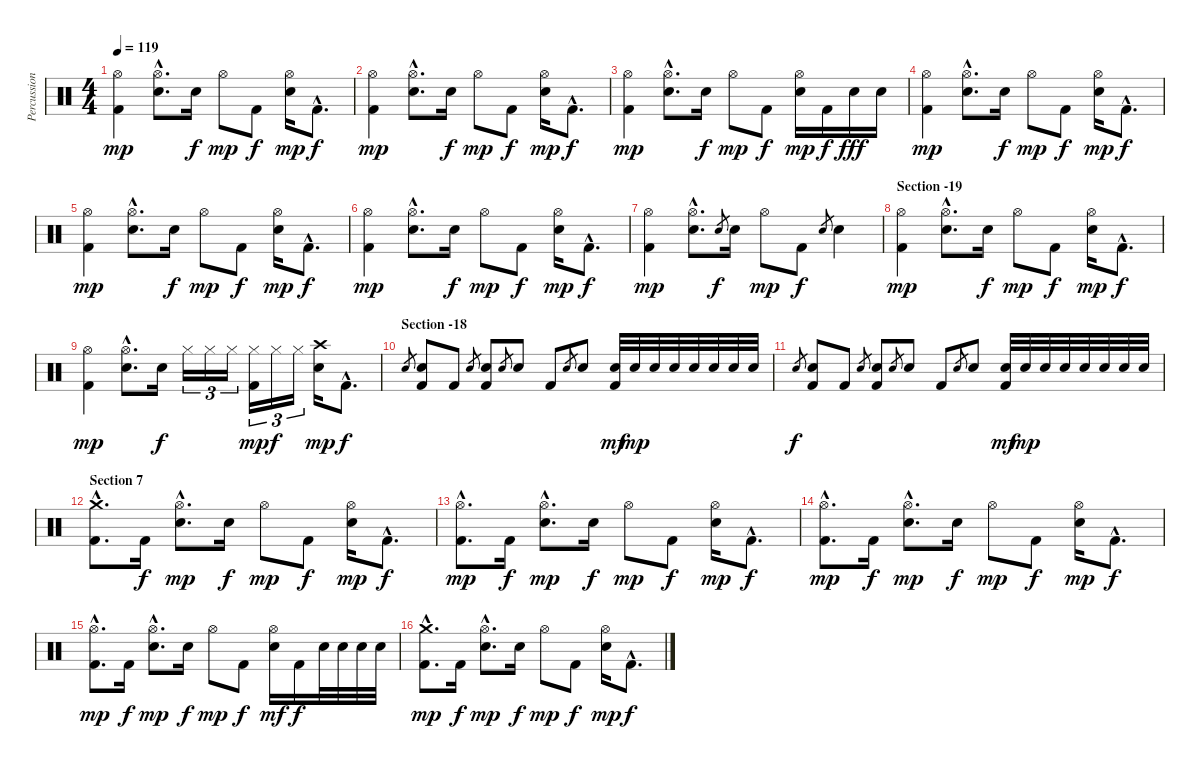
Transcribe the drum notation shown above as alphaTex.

\track ("Percussions" "Percussion") {instrument percussion}
\staff {score}
\articulation defaults
\ts (4 4)
\tempo 119
\clef neutral
\ks c
("Hi-Hat (open)" "Kick (hit) 2").4{dy mp} ("Hi-Hat (open)"{hac} "Snare (hit) 2"{hac}).8{d} "Snare (hit) 2".16{dy f} "Hi-Hat (open)".8{dy mp} "Kick (hit) 2".8{dy f} ("Hi-Hat (open)" "Snare (hit) 2").16{dy mp} "Kick (hit) 2"{hac}.8{d dy f} |
("Hi-Hat (open)" "Kick (hit) 2").4{dy mp} ("Hi-Hat (open)"{hac} "Snare (hit) 2"{hac}).8{d} "Snare (hit) 2".16{dy f} "Hi-Hat (open)".8{dy mp} "Kick (hit) 2".8{dy f} ("Hi-Hat (open)" "Snare (hit) 2").16{dy mp} "Kick (hit) 2"{hac}.8{d dy f} |
("Hi-Hat (open)" "Kick (hit) 2").4{dy mp} ("Hi-Hat (open)"{hac} "Snare (hit) 2"{hac}).8{d} "Snare (hit) 2".16{dy f} "Hi-Hat (open)".8{dy mp} "Kick (hit) 2".8{dy f} ("Hi-Hat (open)" "Snare (hit) 2").16{dy mp} "Kick (hit) 2".16{dy f} "Snare (hit) 2".16{dy fff} "Snare (hit) 2".16 |
("Hi-Hat (open)" "Kick (hit) 2").4{dy mp} ("Hi-Hat (open)"{hac} "Snare (hit) 2"{hac}).8{d} "Snare (hit) 2".16{dy f} "Hi-Hat (open)".8{dy mp} "Kick (hit) 2".8{dy f} ("Hi-Hat (open)" "Snare (hit) 2").16{dy mp} "Kick (hit) 2"{hac}.8{d dy f} |
("Hi-Hat (open)" "Kick (hit) 2").4{dy mp} ("Hi-Hat (open)"{hac} "Snare (hit) 2"{hac}).8{d} "Snare (hit) 2".16{dy f} "Hi-Hat (open)".8{dy mp} "Kick (hit) 2".8{dy f} ("Hi-Hat (open)" "Snare (hit) 2").16{dy mp} "Kick (hit) 2"{hac}.8{d dy f} |
("Hi-Hat (open)" "Kick (hit) 2").4{dy mp} ("Hi-Hat (open)"{hac} "Snare (hit) 2"{hac}).8{d} "Snare (hit) 2".16{dy f} "Hi-Hat (open)".8{dy mp} "Kick (hit) 2".8{dy f} ("Hi-Hat (open)" "Snare (hit) 2").16{dy mp} "Kick (hit) 2"{hac}.8{d dy f} |
("Hi-Hat (open)" "Kick (hit) 2").4{dy mp} ("Hi-Hat (open)"{hac} "Snare (hit) 2"{hac}).8{d} "Snare (hit) 2".8{gr dy f} "Snare (hit) 2".16 "Hi-Hat (open)".8{dy mp} "Kick (hit) 2".8{dy f} "Snare (hit) 2".8{gr} "Snare (hit) 2".4 |
\section ("" "Section -19")
("Hi-Hat (open)" "Kick (hit) 2").4{dy mp} ("Hi-Hat (open)"{hac} "Snare (hit) 2"{hac}).8{d} "Snare (hit) 2".16{dy f} "Hi-Hat (open)".8{dy mp} "Kick (hit) 2".8{dy f} ("Hi-Hat (open)" "Snare (hit) 2").16{dy mp} "Kick (hit) 2"{hac}.8{d dy f} |
("Hi-Hat (open)" "Kick (hit) 2").4{dy mp} ("Hi-Hat (open)"{hac} "Snare (hit) 2"{hac}).8{d} "Snare (hit) 2".16{dy f} "Hi-Hat (closed)".16{tu (3 2)} "Hi-Hat (closed)".16{tu (3 2)} "Hi-Hat (closed)".16{tu (3 2)} ("Hi-Hat (closed)" "Kick (hit) 2").16{tu (3 2) dy mp} "Hi-Hat (closed)".16{tu (3 2) dy f} "Hi-Hat (closed)".16{tu (3 2)} ("Crash high (hit)" "Snare (hit) 2").16{dy mp} "Kick (hit) 2"{hac}.8{d dy f} |
\section ("" "Section -18")
"Snare (hit) 2".8{gr} ("Snare (hit) 2" "Kick (hit) 2").8 "Kick (hit) 2".8 "Snare (hit) 2".8{gr} ("Snare (hit) 2" "Kick (hit) 2").8 "Snare (hit) 2".8{gr} "Snare (hit) 2".8 "Kick (hit) 2".8 "Snare (hit) 2".8{gr} "Snare (hit) 2".8 ("Snare (hit) 2" "Kick (hit) 2").32{dy mf} "Snare (hit) 2".32{dy mp} "Snare (hit) 2".32 "Snare (hit) 2".32 "Snare (hit) 2".32 "Snare (hit) 2".32 "Snare (hit) 2".32 "Snare (hit) 2".32 |
"Snare (hit) 2".8{gr dy f} ("Snare (hit) 2" "Kick (hit) 2").8 "Kick (hit) 2".8 "Snare (hit) 2".8{gr} ("Snare (hit) 2" "Kick (hit) 2").8 "Snare (hit) 2".8{gr} "Snare (hit) 2".8 "Kick (hit) 2".8 "Snare (hit) 2".8{gr} "Snare (hit) 2".8 ("Snare (hit) 2" "Kick (hit) 2").32{dy mf} "Snare (hit) 2".32{dy mp} "Snare (hit) 2".32 "Snare (hit) 2".32 "Snare (hit) 2".32 "Snare (hit) 2".32 "Snare (hit) 2".32 "Snare (hit) 2".32 |
\section ("" "Section 7")
("Crash medium (hit)"{hac} "Kick (hit) 2"{hac}).8{d} "Kick (hit) 2".16{dy f} ("Hi-Hat (open)"{hac} "Snare (hit) 2"{hac}).8{d dy mp} "Electric Snare (hit)".16{dy f} "Hi-Hat (open)".8{dy mp} "Kick (hit) 2".8{dy f} ("Hi-Hat (open)" "Snare (hit) 2").16{dy mp} "Kick (hit) 2"{hac}.8{d dy f} |
("Hi-Hat (open)"{hac} "Kick (hit) 2"{hac}).8{d dy mp} "Kick (hit) 2".16{dy f} ("Hi-Hat (open)"{hac} "Snare (hit) 2"{hac}).8{d dy mp} "Electric Snare (hit)".16{dy f} "Hi-Hat (open)".8{dy mp} "Kick (hit) 2".8{dy f} ("Hi-Hat (open)" "Snare (hit) 2").16{dy mp} "Kick (hit) 2"{hac}.8{d dy f} |
("Hi-Hat (open)"{hac} "Kick (hit) 2"{hac}).8{d dy mp} "Kick (hit) 2".16{dy f} ("Hi-Hat (open)"{hac} "Snare (hit) 2"{hac}).8{d dy mp} "Electric Snare (hit)".16{dy f} "Hi-Hat (open)".8{dy mp} "Kick (hit) 2".8{dy f} ("Hi-Hat (open)" "Snare (hit) 2").16{dy mp} "Kick (hit) 2"{hac}.8{d dy f} |
("Hi-Hat (open)"{hac} "Kick (hit) 2"{hac}).8{d dy mp} "Kick (hit) 2".16{dy f} ("Hi-Hat (open)"{hac} "Snare (hit) 2"{hac}).8{d dy mp} "Electric Snare (hit)".16{dy f} "Hi-Hat (open)".8{dy mp} "Kick (hit) 2".8{dy f} ("Hi-Hat (open)" "Snare (hit) 2").16{dy mf} "Kick (hit) 2".16{dy f} "Snare (hit) 2".32 "Snare (hit) 2".32 "Snare (hit) 2".32 "Snare (hit) 2".32 |
("Crash medium (hit)"{hac} "Kick (hit) 2"{hac}).8{d dy mp} "Kick (hit) 2".16{dy f} ("Hi-Hat (open)"{hac} "Snare (hit) 2"{hac}).8{d dy mp} "Electric Snare (hit)".16{dy f} "Hi-Hat (open)".8{dy mp} "Kick (hit) 2".8{dy f} ("Hi-Hat (open)" "Snare (hit) 2").16{dy mp} "Kick (hit) 2"{hac}.8{d dy f}
